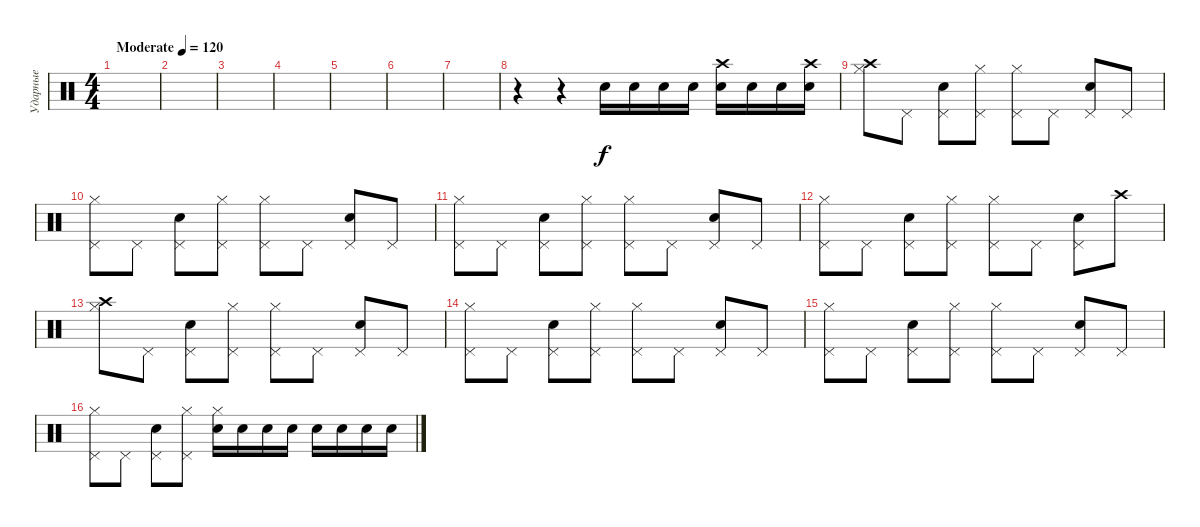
\track ("Ударные" "Ударные") {instrument percussion}
\staff {score}
\articulation defaults
\ts (4 4)
\tempo (120 "Moderate")
\clef neutral
\ks c
|
|
|
|
|
|
|
r.4 r.4 "Snare (hit) 2".16 "Snare (hit) 2".16 "Snare (hit) 2".16 "Snare (hit) 2".16 ("Crash high (hit)" "Snare (hit) 2").16 "Snare (hit) 2".16 "Snare (hit) 2".16 ("Crash high (hit)" "Snare (hit) 2").16 |
("Crash high (hit)" "Hi-Hat (closed)").8 "Pedal Hi-Hat (hit)".8 ("Pedal Hi-Hat (hit)" "Snare (hit) 2").8 ("Pedal Hi-Hat (hit)" "Hi-Hat (closed)").8 ("Pedal Hi-Hat (hit)" "Hi-Hat (closed)").8 "Pedal Hi-Hat (hit)".8 ("Pedal Hi-Hat (hit)" "Snare (hit) 2").8 "Pedal Hi-Hat (hit)".8 |
("Pedal Hi-Hat (hit)" "Hi-Hat (closed)").8 "Pedal Hi-Hat (hit)".8 ("Pedal Hi-Hat (hit)" "Snare (hit) 2").8 ("Pedal Hi-Hat (hit)" "Hi-Hat (closed)").8 ("Pedal Hi-Hat (hit)" "Hi-Hat (closed)").8 "Pedal Hi-Hat (hit)".8 ("Pedal Hi-Hat (hit)" "Snare (hit) 2").8 "Pedal Hi-Hat (hit)".8 |
("Pedal Hi-Hat (hit)" "Hi-Hat (closed)").8 "Pedal Hi-Hat (hit)".8 ("Pedal Hi-Hat (hit)" "Snare (hit) 2").8 ("Pedal Hi-Hat (hit)" "Hi-Hat (closed)").8 ("Pedal Hi-Hat (hit)" "Hi-Hat (closed)").8 "Pedal Hi-Hat (hit)".8 ("Pedal Hi-Hat (hit)" "Snare (hit) 2").8 "Pedal Hi-Hat (hit)".8 |
("Pedal Hi-Hat (hit)" "Hi-Hat (closed)").8 "Pedal Hi-Hat (hit)".8 ("Pedal Hi-Hat (hit)" "Snare (hit) 2").8 ("Pedal Hi-Hat (hit)" "Hi-Hat (closed)").8 ("Pedal Hi-Hat (hit)" "Hi-Hat (closed)").8 "Pedal Hi-Hat (hit)".8 ("Pedal Hi-Hat (hit)" "Snare (hit) 2").8 "Crash high (hit)".8 |
("Crash high (hit)" "Hi-Hat (closed)").8 "Pedal Hi-Hat (hit)".8 ("Pedal Hi-Hat (hit)" "Snare (hit) 2").8 ("Pedal Hi-Hat (hit)" "Hi-Hat (closed)").8 ("Pedal Hi-Hat (hit)" "Hi-Hat (closed)").8 "Pedal Hi-Hat (hit)".8 ("Pedal Hi-Hat (hit)" "Snare (hit) 2").8 "Pedal Hi-Hat (hit)".8 |
("Pedal Hi-Hat (hit)" "Hi-Hat (closed)").8 "Pedal Hi-Hat (hit)".8 ("Pedal Hi-Hat (hit)" "Snare (hit) 2").8 ("Pedal Hi-Hat (hit)" "Hi-Hat (closed)").8 ("Pedal Hi-Hat (hit)" "Hi-Hat (closed)").8 "Pedal Hi-Hat (hit)".8 ("Pedal Hi-Hat (hit)" "Snare (hit) 2").8 "Pedal Hi-Hat (hit)".8 |
("Pedal Hi-Hat (hit)" "Hi-Hat (closed)").8 "Pedal Hi-Hat (hit)".8 ("Pedal Hi-Hat (hit)" "Snare (hit) 2").8 ("Pedal Hi-Hat (hit)" "Hi-Hat (closed)").8 ("Pedal Hi-Hat (hit)" "Hi-Hat (closed)").8 "Pedal Hi-Hat (hit)".8 ("Pedal Hi-Hat (hit)" "Snare (hit) 2").8 "Pedal Hi-Hat (hit)".8 |
("Pedal Hi-Hat (hit)" "Hi-Hat (closed)").8 "Pedal Hi-Hat (hit)".8 ("Pedal Hi-Hat (hit)" "Snare (hit) 2").8 ("Pedal Hi-Hat (hit)" "Hi-Hat (closed)").8 ("Hi-Hat (closed)" "Snare (hit) 2").16 "Snare (hit) 2".16 "Snare (hit) 2".16 "Snare (hit) 2".16 "Snare (hit) 2".16 "Snare (hit) 2".16 "Snare (hit) 2".16 "Snare (hit) 2".16
